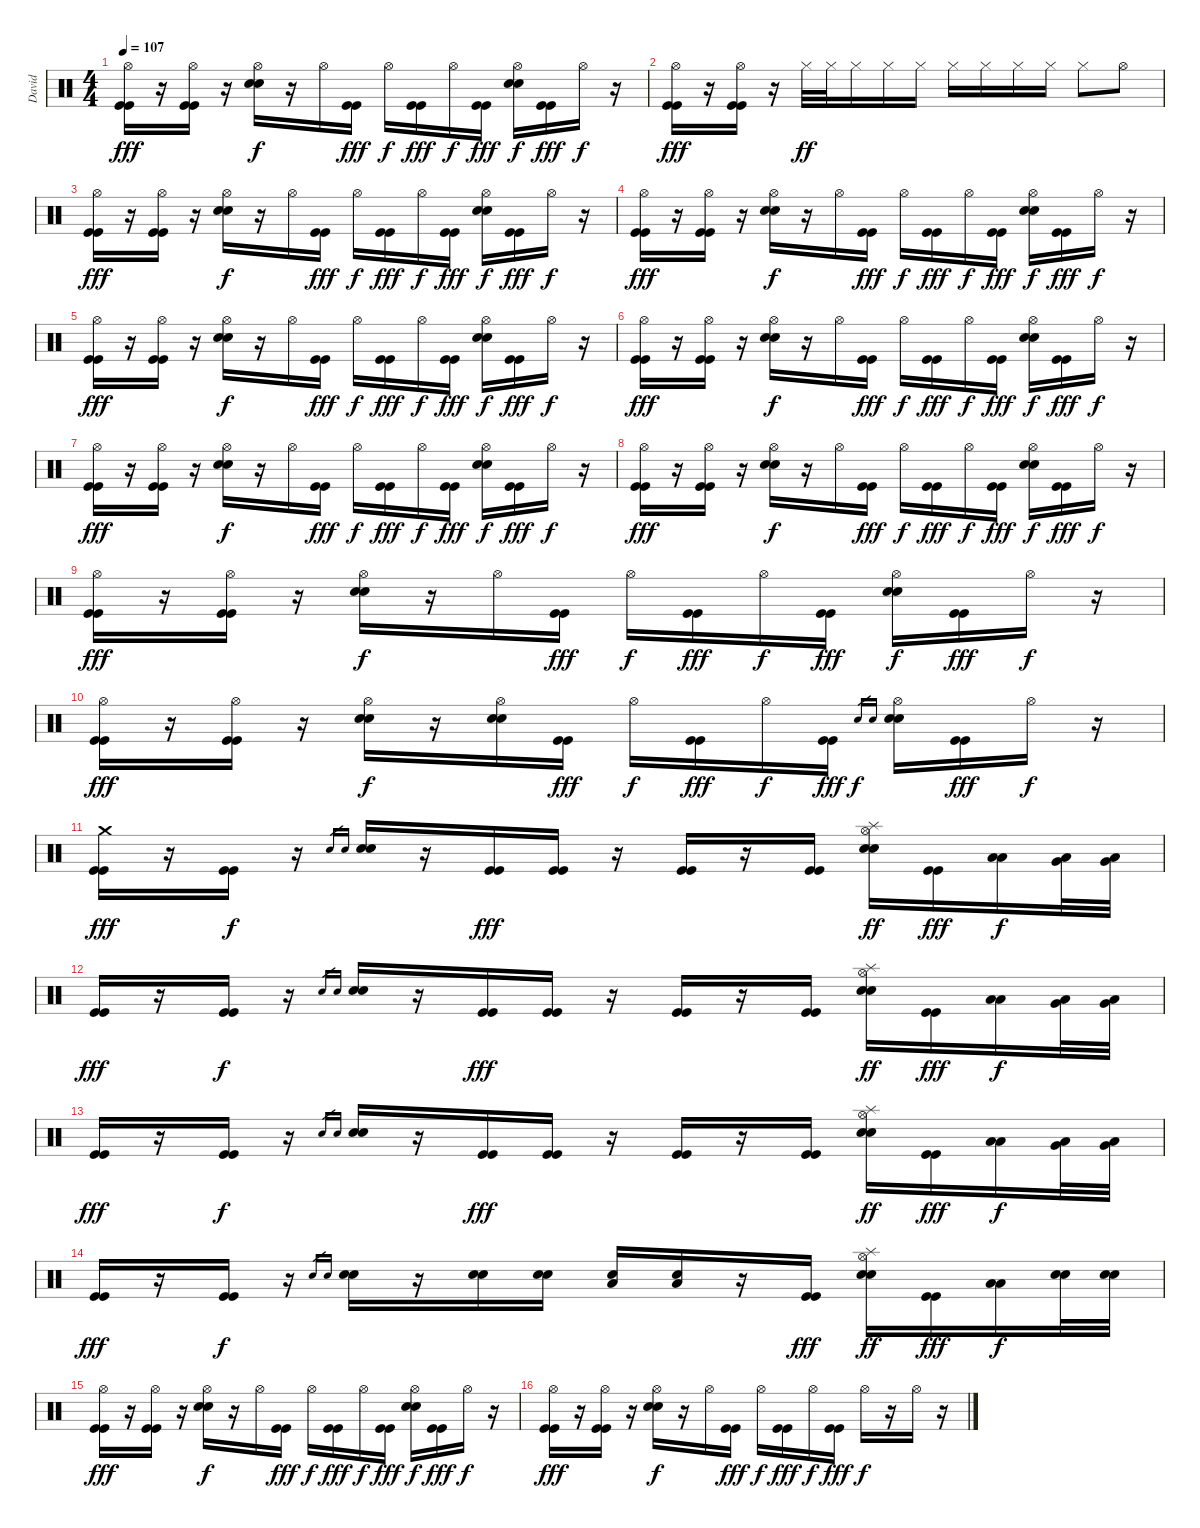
\track ("David" "David") {instrument percussion}
\staff {score}
\articulation defaults
\ts (4 4)
\tempo 107
\clef neutral
\ks c
("Hi-Hat (open)" "Kick (hit)" "Kick (hit)").16{dy fff} r.16 ("Hi-Hat (open)" "Kick (hit)" "Kick (hit)").16 r.16 ("Hi-Hat (open)" "Electric Snare (hit)" "Electric Snare (hit)").16{dy f} r.16 "Hi-Hat (open)".16 ("Kick (hit)" "Kick (hit)").16{dy fff} "Hi-Hat (open)".16{dy f} ("Kick (hit)" "Kick (hit)").16{dy fff} "Hi-Hat (open)".16{dy f} ("Kick (hit)" "Kick (hit)").16{dy fff} ("Hi-Hat (open)" "Electric Snare (hit)" "Electric Snare (hit)").16{dy f} ("Kick (hit)" "Kick (hit)").16{dy fff} "Hi-Hat (open)".16{dy f} r.16 |
("Hi-Hat (open)" "Kick (hit)" "Kick (hit)").16{dy fff} r.16 ("Hi-Hat (open)" "Kick (hit)" "Kick (hit)").16 r.16 "Hi-Hat (closed)".32{dy ff} "Hi-Hat (closed)".32 "Hi-Hat (closed)".16 "Hi-Hat (closed)".16 "Hi-Hat (closed)".16 "Hi-Hat (closed)".16 "Hi-Hat (closed)".16 "Hi-Hat (closed)".16 "Hi-Hat (closed)".16 "Hi-Hat (closed)".8 "Hi-Hat (open)".8 |
("Hi-Hat (open)" "Kick (hit)" "Kick (hit)").16{dy fff} r.16 ("Hi-Hat (open)" "Kick (hit)" "Kick (hit)").16 r.16 ("Hi-Hat (open)" "Electric Snare (hit)" "Electric Snare (hit)").16{dy f} r.16 "Hi-Hat (open)".16 ("Kick (hit)" "Kick (hit)").16{dy fff} "Hi-Hat (open)".16{dy f} ("Kick (hit)" "Kick (hit)").16{dy fff} "Hi-Hat (open)".16{dy f} ("Kick (hit)" "Kick (hit)").16{dy fff} ("Hi-Hat (open)" "Electric Snare (hit)" "Electric Snare (hit)").16{dy f} ("Kick (hit)" "Kick (hit)").16{dy fff} "Hi-Hat (open)".16{dy f} r.16 |
("Hi-Hat (open)" "Kick (hit)" "Kick (hit)").16{dy fff} r.16 ("Hi-Hat (open)" "Kick (hit)" "Kick (hit)").16 r.16 ("Hi-Hat (open)" "Electric Snare (hit)" "Electric Snare (hit)").16{dy f} r.16 "Hi-Hat (open)".16 ("Kick (hit)" "Kick (hit)").16{dy fff} "Hi-Hat (open)".16{dy f} ("Kick (hit)" "Kick (hit)").16{dy fff} "Hi-Hat (open)".16{dy f} ("Kick (hit)" "Kick (hit)").16{dy fff} ("Hi-Hat (open)" "Electric Snare (hit)" "Electric Snare (hit)").16{dy f} ("Kick (hit)" "Kick (hit)").16{dy fff} "Hi-Hat (open)".16{dy f} r.16 |
("Hi-Hat (open)" "Kick (hit)" "Kick (hit)").16{dy fff} r.16 ("Hi-Hat (open)" "Kick (hit)" "Kick (hit)").16 r.16 ("Hi-Hat (open)" "Electric Snare (hit)" "Electric Snare (hit)").16{dy f} r.16 "Hi-Hat (open)".16 ("Kick (hit)" "Kick (hit)").16{dy fff} "Hi-Hat (open)".16{dy f} ("Kick (hit)" "Kick (hit)").16{dy fff} "Hi-Hat (open)".16{dy f} ("Kick (hit)" "Kick (hit)").16{dy fff} ("Hi-Hat (open)" "Electric Snare (hit)" "Electric Snare (hit)").16{dy f} ("Kick (hit)" "Kick (hit)").16{dy fff} "Hi-Hat (open)".16{dy f} r.16 |
("Hi-Hat (open)" "Kick (hit)" "Kick (hit)").16{dy fff} r.16 ("Hi-Hat (open)" "Kick (hit)" "Kick (hit)").16 r.16 ("Hi-Hat (open)" "Electric Snare (hit)" "Electric Snare (hit)").16{dy f} r.16 "Hi-Hat (open)".16 ("Kick (hit)" "Kick (hit)").16{dy fff} "Hi-Hat (open)".16{dy f} ("Kick (hit)" "Kick (hit)").16{dy fff} "Hi-Hat (open)".16{dy f} ("Kick (hit)" "Kick (hit)").16{dy fff} ("Hi-Hat (open)" "Electric Snare (hit)" "Electric Snare (hit)").16{dy f} ("Kick (hit)" "Kick (hit)").16{dy fff} "Hi-Hat (open)".16{dy f} r.16 |
("Hi-Hat (open)" "Kick (hit)" "Kick (hit)").16{dy fff} r.16 ("Hi-Hat (open)" "Kick (hit)" "Kick (hit)").16 r.16 ("Hi-Hat (open)" "Electric Snare (hit)" "Electric Snare (hit)").16{dy f} r.16 "Hi-Hat (open)".16 ("Kick (hit)" "Kick (hit)").16{dy fff} "Hi-Hat (open)".16{dy f} ("Kick (hit)" "Kick (hit)").16{dy fff} "Hi-Hat (open)".16{dy f} ("Kick (hit)" "Kick (hit)").16{dy fff} ("Hi-Hat (open)" "Electric Snare (hit)" "Electric Snare (hit)").16{dy f} ("Kick (hit)" "Kick (hit)").16{dy fff} "Hi-Hat (open)".16{dy f} r.16 |
("Hi-Hat (open)" "Kick (hit)" "Kick (hit)").16{dy fff} r.16 ("Hi-Hat (open)" "Kick (hit)" "Kick (hit)").16 r.16 ("Hi-Hat (open)" "Electric Snare (hit)" "Electric Snare (hit)").16{dy f} r.16 "Hi-Hat (open)".16 ("Kick (hit)" "Kick (hit)").16{dy fff} "Hi-Hat (open)".16{dy f} ("Kick (hit)" "Kick (hit)").16{dy fff} "Hi-Hat (open)".16{dy f} ("Kick (hit)" "Kick (hit)").16{dy fff} ("Hi-Hat (open)" "Electric Snare (hit)" "Electric Snare (hit)").16{dy f} ("Kick (hit)" "Kick (hit)").16{dy fff} "Hi-Hat (open)".16{dy f} r.16 |
("Hi-Hat (open)" "Kick (hit)" "Kick (hit)").16{dy fff} r.16 ("Hi-Hat (open)" "Kick (hit)" "Kick (hit)").16 r.16 ("Hi-Hat (open)" "Electric Snare (hit)" "Electric Snare (hit)").16{dy f} r.16 "Hi-Hat (open)".16 ("Kick (hit)" "Kick (hit)").16{dy fff} "Hi-Hat (open)".16{dy f} ("Kick (hit)" "Kick (hit)").16{dy fff} "Hi-Hat (open)".16{dy f} ("Kick (hit)" "Kick (hit)").16{dy fff} ("Hi-Hat (open)" "Electric Snare (hit)" "Electric Snare (hit)").16{dy f} ("Kick (hit)" "Kick (hit)").16{dy fff} "Hi-Hat (open)".16{dy f} r.16 |
("Hi-Hat (open)" "Kick (hit)" "Kick (hit)").16{dy fff} r.16 ("Hi-Hat (open)" "Kick (hit)" "Kick (hit)").16 r.16 ("Hi-Hat (open)" "Electric Snare (hit)" "Electric Snare (hit)").16{dy f} r.16 ("Hi-Hat (open)" "Electric Snare (hit)" "Electric Snare (hit)").16 ("Kick (hit)" "Kick (hit)").16{dy fff} "Hi-Hat (open)".16{dy f} ("Kick (hit)" "Kick (hit)").16{dy fff} "Hi-Hat (open)".16{dy f} ("Kick (hit)" "Kick (hit)").16{dy fff} "Electric Snare (hit)".16{gr dy f} "Electric Snare (hit)".16{gr} ("Hi-Hat (open)" "Electric Snare (hit)" "Electric Snare (hit)").16 ("Kick (hit)" "Kick (hit)").16{dy fff} "Hi-Hat (open)".16{dy f} r.16 |
("Crash medium (hit)" "Kick (hit)" "Kick (hit)").16{dy fff} r.16 ("Kick (hit)" "Kick (hit)").16{dy f} r.16 "Electric Snare (hit)".16{gr} "Electric Snare (hit)".16{gr} ("Electric Snare (hit)" "Electric Snare (hit)").16 r.16 ("Kick (hit)" "Kick (hit)").16{dy fff} ("Kick (hit)" "Kick (hit)").16 r.16 ("Kick (hit)" "Kick (hit)").16 r.16 ("Kick (hit)" "Kick (hit)").16 ("Splash (hit)" "Hi-Hat (open)" "Electric Snare (hit)" "Electric Snare (hit)").16{dy ff} ("Kick (hit)" "Kick (hit)").16{dy fff} ("Low Floor Tom (hit)" "Low Floor Tom (hit)").16{dy f} ("Low Floor Tom (hit)" "Very Low Tom (hit)").32 ("Very Low Tom (hit)" "Low Tom (hit)").32 |
("Kick (hit)" "Kick (hit)").16{dy fff} r.16 ("Kick (hit)" "Kick (hit)").16{dy f} r.16 "Electric Snare (hit)".16{gr} "Electric Snare (hit)".16{gr} ("Electric Snare (hit)" "Electric Snare (hit)").16 r.16 ("Kick (hit)" "Kick (hit)").16{dy fff} ("Kick (hit)" "Kick (hit)").16 r.16 ("Kick (hit)" "Kick (hit)").16 r.16 ("Kick (hit)" "Kick (hit)").16 ("Splash (hit)" "Hi-Hat (open)" "Electric Snare (hit)" "Electric Snare (hit)").16{dy ff} ("Kick (hit)" "Kick (hit)").16{dy fff} ("Low Floor Tom (hit)" "Low Floor Tom (hit)").16{dy f} ("Low Floor Tom (hit)" "Very Low Tom (hit)").32 ("Very Low Tom (hit)" "Low Tom (hit)").32 |
("Kick (hit)" "Kick (hit)").16{dy fff} r.16 ("Kick (hit)" "Kick (hit)").16{dy f} r.16 "Electric Snare (hit)".16{gr} "Electric Snare (hit)".16{gr} ("Electric Snare (hit)" "Electric Snare (hit)").16 r.16 ("Kick (hit)" "Kick (hit)").16{dy fff} ("Kick (hit)" "Kick (hit)").16 r.16 ("Kick (hit)" "Kick (hit)").16 r.16 ("Kick (hit)" "Kick (hit)").16 ("Splash (hit)" "Hi-Hat (open)" "Electric Snare (hit)" "Electric Snare (hit)").16{dy ff} ("Kick (hit)" "Kick (hit)").16{dy fff} ("Low Floor Tom (hit)" "Low Floor Tom (hit)").16{dy f} ("Low Floor Tom (hit)" "Very Low Tom (hit)").32 ("Very Low Tom (hit)" "Low Tom (hit)").32 |
("Kick (hit)" "Kick (hit)").16{dy fff} r.16 ("Kick (hit)" "Kick (hit)").16{dy f} r.16 "Electric Snare (hit)".16{gr} "Electric Snare (hit)".16{gr} ("Electric Snare (hit)" "Electric Snare (hit)").16 r.16 ("Electric Snare (hit)" "Electric Snare (hit)").16 ("Electric Snare (hit)" "Electric Snare (hit)").16 ("Low Floor Tom (hit)" "Electric Snare (hit)").16 ("Low Floor Tom (hit)" "Electric Snare (hit)").16 r.16 ("Kick (hit)" "Kick (hit)").16{dy fff} ("Splash (hit)" "Hi-Hat (open)" "Electric Snare (hit)" "Electric Snare (hit)").16{dy ff} ("Kick (hit)" "Kick (hit)").16{dy fff} ("Low Floor Tom (hit)" "Low Floor Tom (hit)").16{dy f} ("Electric Snare (hit)" "Electric Snare (hit)").32 ("Electric Snare (hit)" "Electric Snare (hit)").32 |
("Hi-Hat (open)" "Kick (hit)" "Kick (hit)").16{dy fff} r.16 ("Hi-Hat (open)" "Kick (hit)" "Kick (hit)").16 r.16 ("Hi-Hat (open)" "Electric Snare (hit)" "Electric Snare (hit)").16{dy f} r.16 "Hi-Hat (open)".16 ("Kick (hit)" "Kick (hit)").16{dy fff} "Hi-Hat (open)".16{dy f} ("Kick (hit)" "Kick (hit)").16{dy fff} "Hi-Hat (open)".16{dy f} ("Kick (hit)" "Kick (hit)").16{dy fff} ("Hi-Hat (open)" "Electric Snare (hit)" "Electric Snare (hit)").16{dy f} ("Kick (hit)" "Kick (hit)").16{dy fff} "Hi-Hat (open)".16{dy f} r.16 |
("Hi-Hat (open)" "Kick (hit)" "Kick (hit)").16{dy fff} r.16 ("Hi-Hat (open)" "Kick (hit)" "Kick (hit)").16 r.16 ("Hi-Hat (open)" "Electric Snare (hit)" "Electric Snare (hit)").16{dy f} r.16 "Hi-Hat (open)".16 ("Kick (hit)" "Kick (hit)").16{dy fff} "Hi-Hat (open)".16{dy f} ("Kick (hit)" "Kick (hit)").16{dy fff} "Hi-Hat (open)".16{dy f} ("Kick (hit)" "Kick (hit)").16{dy fff} "Hi-Hat (open)".16{dy f} r.16 "Hi-Hat (open)".16 r.16
